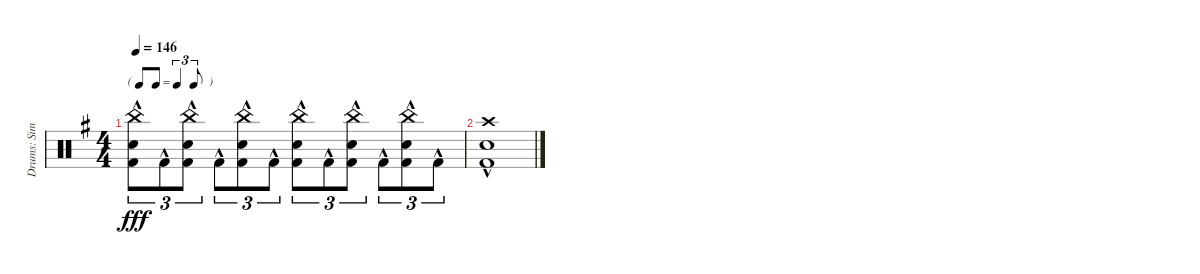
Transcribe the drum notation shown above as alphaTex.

\track ("Drums: Simon" "Drums: Sim") {instrument percussion}
\staff {score}
\articulation defaults
\ts (4 4)
\tf triplet8th
\tempo 146
\clef neutral
\ks g
("China (hit)"{hac} "Electric Snare (hit)"{hac} "Kick (hit) 2"{hac}).8{tu (3 2) dy fff} "Kick (hit) 2"{hac}.8{tu (3 2)} ("China (hit)"{hac} "Electric Snare (hit)"{hac} "Kick (hit) 2"{hac}).8{tu (3 2)} "Kick (hit) 2"{hac}.8{tu (3 2)} ("China (hit)"{hac} "Electric Snare (hit)"{hac} "Kick (hit) 2"{hac}).8{tu (3 2)} "Kick (hit) 2"{hac}.8{tu (3 2)} ("China (hit)"{hac} "Electric Snare (hit)"{hac} "Kick (hit) 2"{hac}).8{tu (3 2)} "Kick (hit) 2"{hac}.8{tu (3 2)} ("China (hit)"{hac} "Electric Snare (hit)"{hac} "Kick (hit) 2"{hac}).8{tu (3 2)} "Kick (hit) 2"{hac}.8{tu (3 2)} ("China (hit)"{hac} "Electric Snare (hit)"{hac} "Kick (hit) 2"{hac}).8{tu (3 2)} "Kick (hit) 2"{hac}.8{tu (3 2)} |
("Crash high (hit)"{hac} "Snare (hit) 2"{hac} "Kick (hit) 2"{hac}).1
